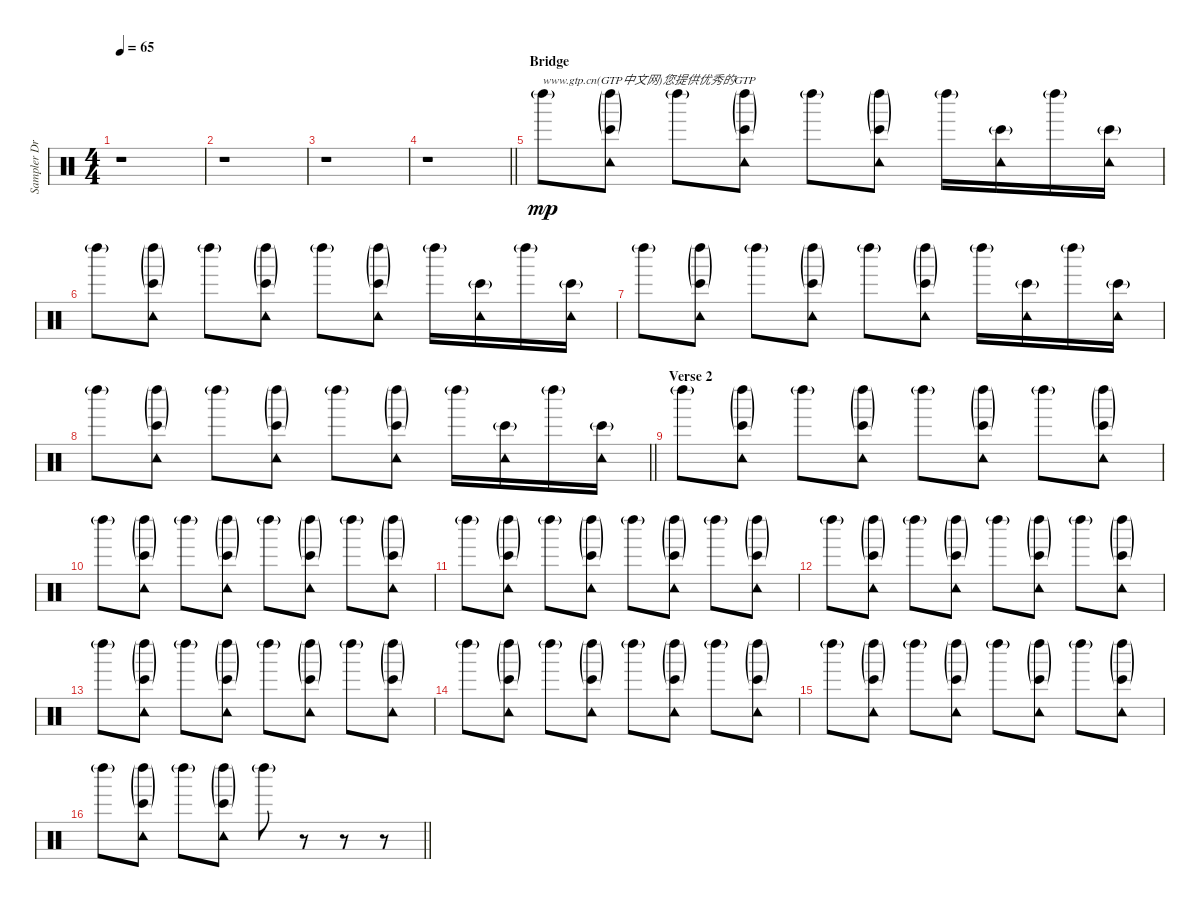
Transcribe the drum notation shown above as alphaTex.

\track ("Sampler Drums" "Sampler Dr") {instrument percussion}
\staff {score}
\articulation defaults
\ts (4 4)
\tempo 65
\clef neutral
\ks c
r.1{dy mp} |
r.1 |
r.1 |
\barLineRight lightlight
r.1 |
\section ("" "Bridge")
"Left Maraca (hit)"{g}.8{txt "www.gtp.cn(GTP中文网)您提供优秀的GTP"} ("Tambourine (hit)" "Bongo High (hit)"{g} "Left Maraca (hit)"{g}).8 "Left Maraca (hit)"{g}.8 ("Tambourine (hit)" "Bongo High (hit)"{g} "Left Maraca (hit)"{g}).8 "Left Maraca (hit)"{g}.8 ("Tambourine (hit)" "Bongo High (hit)"{g} "Left Maraca (hit)"{g}).8 "Left Maraca (hit)"{g}.16 ("Tambourine (hit)" "Bongo High (hit)"{g}).16 "Left Maraca (hit)"{g}.16 ("Tambourine (hit)" "Bongo High (hit)"{g}).16 |
"Left Maraca (hit)"{g}.8 ("Tambourine (hit)" "Bongo High (hit)"{g} "Left Maraca (hit)"{g}).8 "Left Maraca (hit)"{g}.8 ("Tambourine (hit)" "Bongo High (hit)"{g} "Left Maraca (hit)"{g}).8 "Left Maraca (hit)"{g}.8 ("Tambourine (hit)" "Bongo High (hit)"{g} "Left Maraca (hit)"{g}).8 "Left Maraca (hit)"{g}.16 ("Tambourine (hit)" "Bongo High (hit)"{g}).16 "Left Maraca (hit)"{g}.16 ("Tambourine (hit)" "Bongo High (hit)"{g}).16 |
"Left Maraca (hit)"{g}.8 ("Tambourine (hit)" "Bongo High (hit)"{g} "Left Maraca (hit)"{g}).8 "Left Maraca (hit)"{g}.8 ("Tambourine (hit)" "Bongo High (hit)"{g} "Left Maraca (hit)"{g}).8 "Left Maraca (hit)"{g}.8 ("Tambourine (hit)" "Bongo High (hit)"{g} "Left Maraca (hit)"{g}).8 "Left Maraca (hit)"{g}.16 ("Tambourine (hit)" "Bongo High (hit)"{g}).16 "Left Maraca (hit)"{g}.16 ("Tambourine (hit)" "Bongo High (hit)"{g}).16 |
\barLineRight lightlight "Left Maraca (hit)"{g}.8
("Tambourine (hit)" "Bongo High (hit)"{g} "Left Maraca (hit)"{g}).8 "Left Maraca (hit)"{g}.8 ("Tambourine (hit)" "Bongo High (hit)"{g} "Left Maraca (hit)"{g}).8 "Left Maraca (hit)"{g}.8 ("Tambourine (hit)" "Bongo High (hit)"{g} "Left Maraca (hit)"{g}).8 "Left Maraca (hit)"{g}.16 ("Tambourine (hit)" "Bongo High (hit)"{g}).16 "Left Maraca (hit)"{g}.16 ("Tambourine (hit)" "Bongo High (hit)"{g}).16 |
\section ("" "Verse 2")
"Left Maraca (hit)"{g}.8 ("Tambourine (hit)" "Bongo High (hit)"{g} "Left Maraca (hit)"{g}).8 "Left Maraca (hit)"{g}.8 ("Tambourine (hit)" "Bongo High (hit)"{g} "Left Maraca (hit)"{g}).8 "Left Maraca (hit)"{g}.8 ("Tambourine (hit)" "Bongo High (hit)"{g} "Left Maraca (hit)"{g}).8 "Left Maraca (hit)"{g}.8 ("Tambourine (hit)" "Bongo High (hit)"{g} "Left Maraca (hit)"{g}).8 |
"Left Maraca (hit)"{g}.8 ("Tambourine (hit)" "Bongo High (hit)"{g} "Left Maraca (hit)"{g}).8 "Left Maraca (hit)"{g}.8 ("Tambourine (hit)" "Bongo High (hit)"{g} "Left Maraca (hit)"{g}).8 "Left Maraca (hit)"{g}.8 ("Tambourine (hit)" "Bongo High (hit)"{g} "Left Maraca (hit)"{g}).8 "Left Maraca (hit)"{g}.8 ("Tambourine (hit)" "Bongo High (hit)"{g} "Left Maraca (hit)"{g}).8 |
"Left Maraca (hit)"{g}.8 ("Tambourine (hit)" "Bongo High (hit)"{g} "Left Maraca (hit)"{g}).8 "Left Maraca (hit)"{g}.8 ("Tambourine (hit)" "Bongo High (hit)"{g} "Left Maraca (hit)"{g}).8 "Left Maraca (hit)"{g}.8 ("Tambourine (hit)" "Bongo High (hit)"{g} "Left Maraca (hit)"{g}).8 "Left Maraca (hit)"{g}.8 ("Tambourine (hit)" "Bongo High (hit)"{g} "Left Maraca (hit)"{g}).8 |
"Left Maraca (hit)"{g}.8 ("Tambourine (hit)" "Bongo High (hit)"{g} "Left Maraca (hit)"{g}).8 "Left Maraca (hit)"{g}.8 ("Tambourine (hit)" "Bongo High (hit)"{g} "Left Maraca (hit)"{g}).8 "Left Maraca (hit)"{g}.8 ("Tambourine (hit)" "Bongo High (hit)"{g} "Left Maraca (hit)"{g}).8 "Left Maraca (hit)"{g}.8 ("Tambourine (hit)" "Bongo High (hit)"{g} "Left Maraca (hit)"{g}).8 |
"Left Maraca (hit)"{g}.8 ("Tambourine (hit)" "Bongo High (hit)"{g} "Left Maraca (hit)"{g}).8 "Left Maraca (hit)"{g}.8 ("Tambourine (hit)" "Bongo High (hit)"{g} "Left Maraca (hit)"{g}).8 "Left Maraca (hit)"{g}.8 ("Tambourine (hit)" "Bongo High (hit)"{g} "Left Maraca (hit)"{g}).8 "Left Maraca (hit)"{g}.8 ("Tambourine (hit)" "Bongo High (hit)"{g} "Left Maraca (hit)"{g}).8 |
"Left Maraca (hit)"{g}.8 ("Tambourine (hit)" "Bongo High (hit)"{g} "Left Maraca (hit)"{g}).8 "Left Maraca (hit)"{g}.8 ("Tambourine (hit)" "Bongo High (hit)"{g} "Left Maraca (hit)"{g}).8 "Left Maraca (hit)"{g}.8 ("Tambourine (hit)" "Bongo High (hit)"{g} "Left Maraca (hit)"{g}).8 "Left Maraca (hit)"{g}.8 ("Tambourine (hit)" "Bongo High (hit)"{g} "Left Maraca (hit)"{g}).8 |
"Left Maraca (hit)"{g}.8 ("Tambourine (hit)" "Bongo High (hit)"{g} "Left Maraca (hit)"{g}).8 "Left Maraca (hit)"{g}.8 ("Tambourine (hit)" "Bongo High (hit)"{g} "Left Maraca (hit)"{g}).8 "Left Maraca (hit)"{g}.8 ("Tambourine (hit)" "Bongo High (hit)"{g} "Left Maraca (hit)"{g}).8 "Left Maraca (hit)"{g}.8 ("Tambourine (hit)" "Bongo High (hit)"{g} "Left Maraca (hit)"{g}).8 |
\barLineRight lightlight "Left Maraca (hit)"{g}.8
("Tambourine (hit)" "Bongo High (hit)"{g} "Left Maraca (hit)"{g}).8 "Left Maraca (hit)"{g}.8 ("Tambourine (hit)" "Bongo High (hit)"{g} "Left Maraca (hit)"{g}).8 "Left Maraca (hit)"{g}.8 r.8 r.8 r.8
